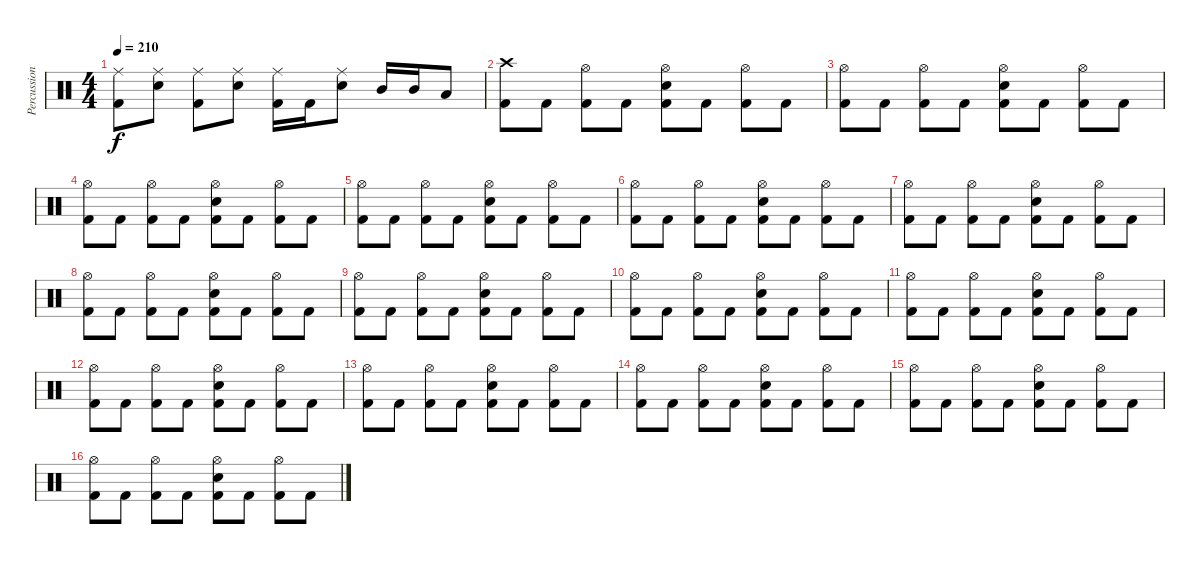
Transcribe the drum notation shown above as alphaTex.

\track ("Percussions" "Percussion") {instrument percussion}
\staff {score}
\articulation defaults
\ts (4 4)
\tempo 210
\clef neutral
\ks c
("Kick (hit) 2" "Ride (middle)").8{dy f} ("Electric Snare (hit)" "Ride (middle)").8 ("Kick (hit) 2" "Ride (middle)").8 ("Electric Snare (hit)" "Ride (middle)").8 ("Kick (hit) 2" "Ride (middle)").16 "Kick (hit) 2".16 ("Electric Snare (hit)" "Ride (middle)").8 "Mid Tom (hit)".16 "Mid Tom (hit)".16 "Low Tom (hit)".8 |
("Kick (hit) 2" "Crash high (hit)").8 "Kick (hit) 2".8 ("Kick (hit) 2" "Hi-Hat (open)").8 "Kick (hit) 2".8 ("Kick (hit) 2" "Electric Snare (hit)" "Hi-Hat (open)").8 "Kick (hit) 2".8 ("Kick (hit) 2" "Hi-Hat (open)").8 "Kick (hit) 2".8 |
("Kick (hit) 2" "Hi-Hat (open)").8 "Kick (hit) 2".8 ("Kick (hit) 2" "Hi-Hat (open)").8 "Kick (hit) 2".8 ("Kick (hit) 2" "Electric Snare (hit)" "Hi-Hat (open)").8 "Kick (hit) 2".8 ("Kick (hit) 2" "Hi-Hat (open)").8 "Kick (hit) 2".8 |
("Kick (hit) 2" "Hi-Hat (open)").8 "Kick (hit) 2".8 ("Kick (hit) 2" "Hi-Hat (open)").8 "Kick (hit) 2".8 ("Kick (hit) 2" "Electric Snare (hit)" "Hi-Hat (open)").8 "Kick (hit) 2".8 ("Kick (hit) 2" "Hi-Hat (open)").8 "Kick (hit) 2".8 |
("Kick (hit) 2" "Hi-Hat (open)").8 "Kick (hit) 2".8 ("Kick (hit) 2" "Hi-Hat (open)").8 "Kick (hit) 2".8 ("Kick (hit) 2" "Electric Snare (hit)" "Hi-Hat (open)").8 "Kick (hit) 2".8 ("Kick (hit) 2" "Hi-Hat (open)").8 "Kick (hit) 2".8 |
("Kick (hit) 2" "Hi-Hat (open)").8 "Kick (hit) 2".8 ("Kick (hit) 2" "Hi-Hat (open)").8 "Kick (hit) 2".8 ("Kick (hit) 2" "Electric Snare (hit)" "Hi-Hat (open)").8 "Kick (hit) 2".8 ("Kick (hit) 2" "Hi-Hat (open)").8 "Kick (hit) 2".8 |
("Kick (hit) 2" "Hi-Hat (open)").8 "Kick (hit) 2".8 ("Kick (hit) 2" "Hi-Hat (open)").8 "Kick (hit) 2".8 ("Kick (hit) 2" "Electric Snare (hit)" "Hi-Hat (open)").8 "Kick (hit) 2".8 ("Kick (hit) 2" "Hi-Hat (open)").8 "Kick (hit) 2".8 |
("Kick (hit) 2" "Hi-Hat (open)").8 "Kick (hit) 2".8 ("Kick (hit) 2" "Hi-Hat (open)").8 "Kick (hit) 2".8 ("Kick (hit) 2" "Electric Snare (hit)" "Hi-Hat (open)").8 "Kick (hit) 2".8 ("Kick (hit) 2" "Hi-Hat (open)").8 "Kick (hit) 2".8 |
("Kick (hit) 2" "Hi-Hat (open)").8 "Kick (hit) 2".8 ("Kick (hit) 2" "Hi-Hat (open)").8 "Kick (hit) 2".8 ("Kick (hit) 2" "Electric Snare (hit)" "Hi-Hat (open)").8 "Kick (hit) 2".8 ("Kick (hit) 2" "Hi-Hat (open)").8 "Kick (hit) 2".8 |
("Kick (hit) 2" "Hi-Hat (open)").8 "Kick (hit) 2".8 ("Kick (hit) 2" "Hi-Hat (open)").8 "Kick (hit) 2".8 ("Kick (hit) 2" "Electric Snare (hit)" "Hi-Hat (open)").8 "Kick (hit) 2".8 ("Kick (hit) 2" "Hi-Hat (open)").8 "Kick (hit) 2".8 |
("Kick (hit) 2" "Hi-Hat (open)").8 "Kick (hit) 2".8 ("Kick (hit) 2" "Hi-Hat (open)").8 "Kick (hit) 2".8 ("Kick (hit) 2" "Electric Snare (hit)" "Hi-Hat (open)").8 "Kick (hit) 2".8 ("Kick (hit) 2" "Hi-Hat (open)").8 "Kick (hit) 2".8 |
("Kick (hit) 2" "Hi-Hat (open)").8 "Kick (hit) 2".8 ("Kick (hit) 2" "Hi-Hat (open)").8 "Kick (hit) 2".8 ("Kick (hit) 2" "Electric Snare (hit)" "Hi-Hat (open)").8 "Kick (hit) 2".8 ("Kick (hit) 2" "Hi-Hat (open)").8 "Kick (hit) 2".8 |
("Kick (hit) 2" "Hi-Hat (open)").8 "Kick (hit) 2".8 ("Kick (hit) 2" "Hi-Hat (open)").8 "Kick (hit) 2".8 ("Kick (hit) 2" "Electric Snare (hit)" "Hi-Hat (open)").8 "Kick (hit) 2".8 ("Kick (hit) 2" "Hi-Hat (open)").8 "Kick (hit) 2".8 |
("Kick (hit) 2" "Hi-Hat (open)").8 "Kick (hit) 2".8 ("Kick (hit) 2" "Hi-Hat (open)").8 "Kick (hit) 2".8 ("Kick (hit) 2" "Electric Snare (hit)" "Hi-Hat (open)").8 "Kick (hit) 2".8 ("Kick (hit) 2" "Hi-Hat (open)").8 "Kick (hit) 2".8 |
("Kick (hit) 2" "Hi-Hat (open)").8 "Kick (hit) 2".8 ("Kick (hit) 2" "Hi-Hat (open)").8 "Kick (hit) 2".8 ("Kick (hit) 2" "Electric Snare (hit)" "Hi-Hat (open)").8 "Kick (hit) 2".8 ("Kick (hit) 2" "Hi-Hat (open)").8 "Kick (hit) 2".8 |
("Kick (hit) 2" "Hi-Hat (open)").8 "Kick (hit) 2".8 ("Kick (hit) 2" "Hi-Hat (open)").8 "Kick (hit) 2".8 ("Kick (hit) 2" "Electric Snare (hit)" "Hi-Hat (open)").8 "Kick (hit) 2".8 ("Kick (hit) 2" "Hi-Hat (open)").8 "Kick (hit) 2".8
